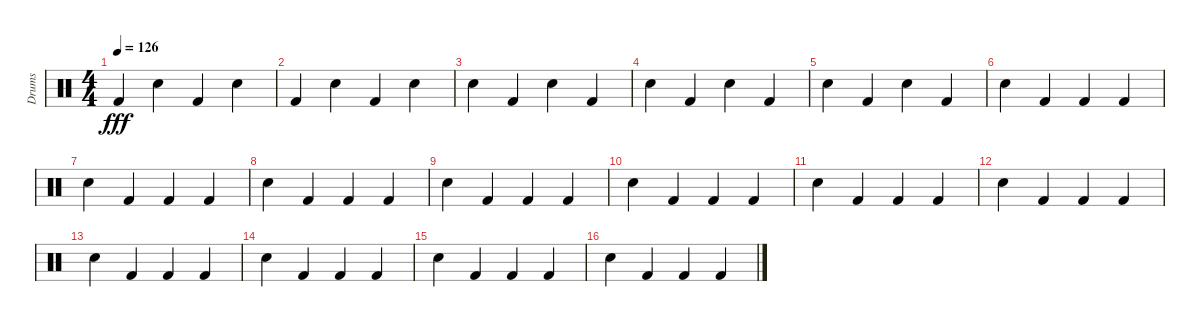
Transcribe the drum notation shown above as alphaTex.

\track ("Drums" "Drums") {instrument percussion}
\staff {score}
\articulation defaults
\ts (4 4)
\tempo 126
\clef neutral
\ks c "Kick (hit) 2".4{dy fff} "Snare (hit) 2".4 "Kick (hit) 2".4 "Snare (hit) 2".4
|
"Kick (hit) 2".4 "Snare (hit) 2".4 "Kick (hit) 2".4 "Snare (hit) 2".4 |
"Snare (hit) 2".4 "Kick (hit) 2".4 "Snare (hit) 2".4 "Kick (hit) 2".4 |
"Snare (hit) 2".4 "Kick (hit) 2".4 "Snare (hit) 2".4 "Kick (hit) 2".4 |
"Snare (hit) 2".4 "Kick (hit) 2".4 "Snare (hit) 2".4 "Kick (hit) 2".4 |
"Snare (hit) 2".4 "Kick (hit) 2".4 "Kick (hit) 2".4 "Kick (hit) 2".4 |
"Snare (hit) 2".4 "Kick (hit) 2".4 "Kick (hit) 2".4 "Kick (hit) 2".4 |
"Snare (hit) 2".4 "Kick (hit) 2".4 "Kick (hit) 2".4 "Kick (hit) 2".4 |
"Snare (hit) 2".4 "Kick (hit) 2".4 "Kick (hit) 2".4 "Kick (hit) 2".4 |
"Snare (hit) 2".4 "Kick (hit) 2".4 "Kick (hit) 2".4 "Kick (hit) 2".4 |
"Snare (hit) 2".4 "Kick (hit) 2".4 "Kick (hit) 2".4 "Kick (hit) 2".4 |
"Snare (hit) 2".4 "Kick (hit) 2".4 "Kick (hit) 2".4 "Kick (hit) 2".4 |
"Snare (hit) 2".4 "Kick (hit) 2".4 "Kick (hit) 2".4 "Kick (hit) 2".4 |
"Snare (hit) 2".4 "Kick (hit) 2".4 "Kick (hit) 2".4 "Kick (hit) 2".4 |
"Snare (hit) 2".4 "Kick (hit) 2".4 "Kick (hit) 2".4 "Kick (hit) 2".4 |
"Snare (hit) 2".4 "Kick (hit) 2".4 "Kick (hit) 2".4 "Kick (hit) 2".4
